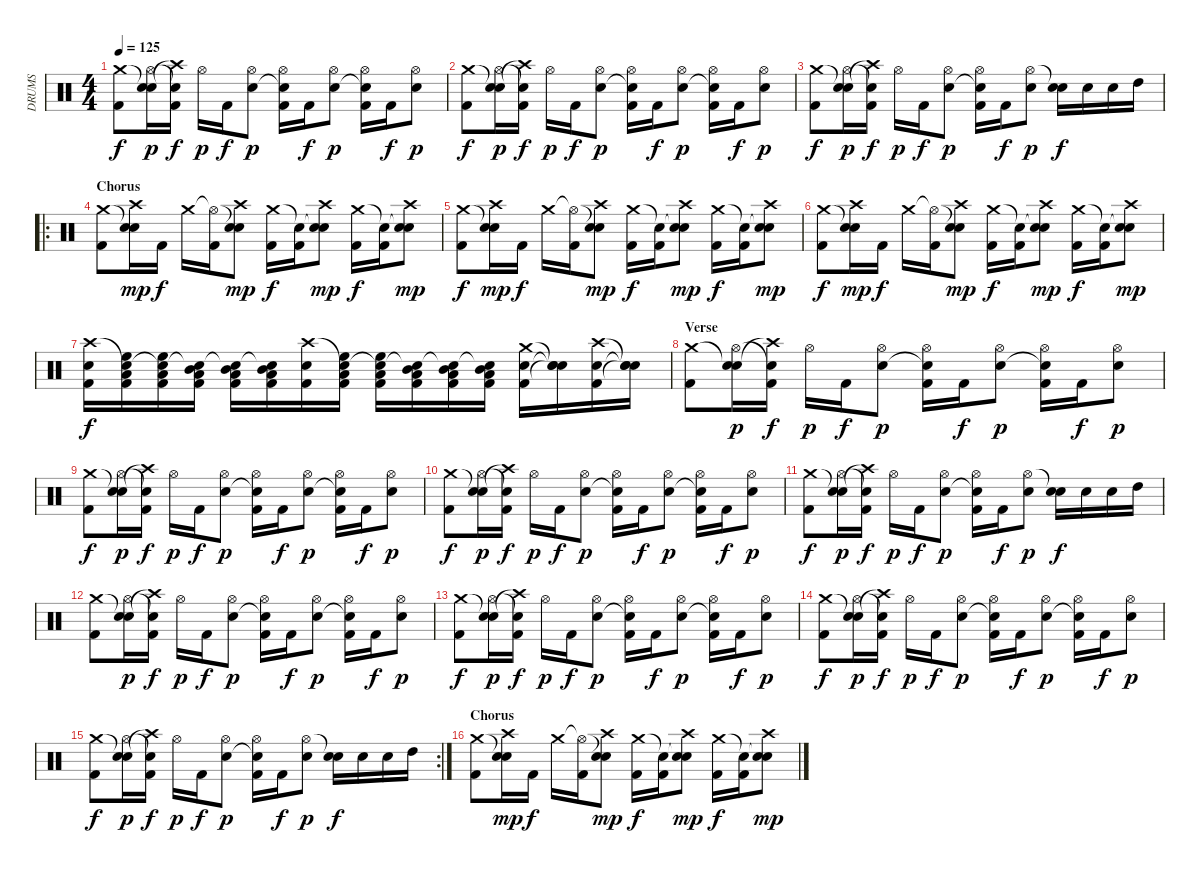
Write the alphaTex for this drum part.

\track ("DRUMS" "DRUMS") {instrument percussion}
\staff {score}
\articulation defaults
\ts (4 4)
\tempo 125
\clef neutral
\ks c
("Crash medium (hit)" "Kick (hit) 2").8{dy f} ("Snare (hit)"{t} "Hi-Hat (open)" "Electric Snare (hit)").16{dy p} ("Crash high (hit)"{t} "Snare (hit)"{t} "Kick (hit) 2").16{dy f} "Hi-Hat (open)".16{dy p} "Kick (hit) 2".16{dy f} ("Hi-Hat (open)" "Electric Snare (hit)").8{dy p} ("Hi-Hat (open)" "Snare (hit)"{t} "Kick (hit) 2").16 "Kick (hit) 2".16{dy f} ("Hi-Hat (open)" "Electric Snare (hit)").8{dy p} ("Hi-Hat (open)" "Snare (hit)"{t} "Kick (hit) 2").16 "Kick (hit) 2".16{dy f} ("Hi-Hat (open)" "Electric Snare (hit)").8{dy p} |
("Crash medium (hit)" "Kick (hit) 2").8{dy f} ("Snare (hit)"{t} "Hi-Hat (open)" "Electric Snare (hit)").16{dy p} ("Crash high (hit)"{t} "Snare (hit)"{t} "Kick (hit) 2").16{dy f} "Hi-Hat (open)".16{dy p} "Kick (hit) 2".16{dy f} ("Hi-Hat (open)" "Electric Snare (hit)").8{dy p} ("Hi-Hat (open)" "Snare (hit)"{t} "Kick (hit) 2").16 "Kick (hit) 2".16{dy f} ("Hi-Hat (open)" "Electric Snare (hit)").8{dy p} ("Hi-Hat (open)" "Snare (hit)"{t} "Kick (hit) 2").16 "Kick (hit) 2".16{dy f} ("Hi-Hat (open)" "Electric Snare (hit)").8{dy p} |
("Crash medium (hit)" "Kick (hit) 2").8{dy f} ("Snare (hit)"{t} "Hi-Hat (open)" "Electric Snare (hit)").16{dy p} ("Crash high (hit)"{t} "Snare (hit)"{t} "Kick (hit) 2").16{dy f} "Hi-Hat (open)".16{dy p} "Kick (hit) 2".16{dy f} ("Hi-Hat (open)" "Electric Snare (hit)").8{dy p} ("Hi-Hat (open)" "Snare (hit)"{t} "Kick (hit) 2").16 "Kick (hit) 2".16{dy f} ("Hi-Hat (open)" "Electric Snare (hit)").8{dy p} ("Snare (hit)"{t} "Electric Snare (hit)").16{dy f} "Electric Snare (hit)".16 "Electric Snare (hit)".16 "High Tom (hit)".16 |
\ro
\section ("" "Chorus")
("Crash medium (hit)" "Kick (hit) 2").8 ("Snare (hit)"{t} "Crash high (hit)" "Electric Snare (hit)").16{dy mp} "Kick (hit) 2".16{dy f} "Crash medium (hit)".16 ("Hi-Hat (open)"{t} "Kick (hit) 2").16 ("Snare (hit)"{t} "Crash high (hit)" "Electric Snare (hit)").8{dy mp} ("Crash medium (hit)" "Kick (hit) 2").16{dy f} ("Snare (hit)"{t} "Kick (hit) 2").16 ("Snare (hit)"{t} "Crash high (hit)" "Electric Snare (hit)").8{dy mp} ("Crash medium (hit)" "Kick (hit) 2").16{dy f} ("Snare (hit)"{t} "Kick (hit) 2").16 ("Snare (hit)"{t} "Crash high (hit)" "Electric Snare (hit)").8{dy mp} |
("Crash medium (hit)" "Kick (hit) 2").8{dy f} ("Snare (hit)"{t} "Crash high (hit)" "Electric Snare (hit)").16{dy mp} "Kick (hit) 2".16{dy f} "Crash medium (hit)".16 ("Hi-Hat (open)"{t} "Kick (hit) 2").16 ("Snare (hit)"{t} "Crash high (hit)" "Electric Snare (hit)").8{dy mp} ("Crash medium (hit)" "Kick (hit) 2").16{dy f} ("Snare (hit)"{t} "Kick (hit) 2").16 ("Snare (hit)"{t} "Crash high (hit)" "Electric Snare (hit)").8{dy mp} ("Crash medium (hit)" "Kick (hit) 2").16{dy f} ("Snare (hit)"{t} "Kick (hit) 2").16 ("Snare (hit)"{t} "Crash high (hit)" "Electric Snare (hit)").8{dy mp} |
("Crash medium (hit)" "Kick (hit) 2").8{dy f} ("Snare (hit)"{t} "Crash high (hit)" "Electric Snare (hit)").16{dy mp} "Kick (hit) 2".16{dy f} "Crash medium (hit)".16 ("Hi-Hat (open)"{t} "Kick (hit) 2").16 ("Snare (hit)"{t} "Crash high (hit)" "Electric Snare (hit)").8{dy mp} ("Crash medium (hit)" "Kick (hit) 2").16{dy f} ("Snare (hit)"{t} "Kick (hit) 2").16 ("Snare (hit)"{t} "Crash high (hit)" "Electric Snare (hit)").8{dy mp} ("Crash medium (hit)" "Kick (hit) 2").16{dy f} ("Snare (hit)"{t} "Kick (hit) 2").16 ("Snare (hit)"{t} "Crash high (hit)" "Electric Snare (hit)").8{dy mp} |
("Crash high (hit)" "Electric Snare (hit)" "Kick (hit) 2").16{dy f} ("Snare (hit)"{t} "Low Tom (hit)" "High Floor Tom (hit)" "Kick (hit) 2").16 ("Snare (hit)"{t} "Low Tom (hit)" "High Floor Tom (hit)" "Kick (hit) 2").16 ("Snare (hit)"{t} "Low Floor Tom (hit)" "Mid Tom (hit)" "Kick (hit) 2").16 ("Snare (hit)"{t} "Low Floor Tom (hit)" "Mid Tom (hit)" "Kick (hit) 2").16 ("Snare (hit)"{t} "Low Floor Tom (hit)" "Mid Tom (hit)" "Kick (hit) 2").16 ("Crash high (hit)" "Electric Snare (hit)" "Kick (hit) 2").16 ("Snare (hit)"{t} "Low Tom (hit)" "High Floor Tom (hit)" "Kick (hit) 2").16 ("Snare (hit)"{t} "Low Tom (hit)" "High Floor Tom (hit)" "Kick (hit) 2").16 ("Snare (hit)"{t} "Low Floor Tom (hit)" "Mid Tom (hit)" "Kick (hit) 2").16 ("Snare (hit)"{t} "Low Floor Tom (hit)" "Mid Tom (hit)" "Kick (hit) 2").16 ("Snare (hit)"{t} "Low Floor Tom (hit)" "Mid Tom (hit)" "Kick (hit) 2").16 ("Crash medium (hit)" "Electric Snare (hit)" "Kick (hit) 2").16 ("Snare (hit)"{t} "Snare (hit)"{t} "Snare (hit)"{t}).16 ("Crash high (hit)" "Electric Snare (hit)" "Kick (hit) 2").16 ("Snare (hit)"{t} "Snare (hit)"{t} "Snare (hit)"{t}).16 |
\section ("" "Verse")
("Crash medium (hit)" "Kick (hit) 2").8 ("Snare (hit)"{t} "Hi-Hat (open)" "Electric Snare (hit)").16{dy p} ("Crash high (hit)"{t} "Snare (hit)"{t} "Kick (hit) 2").16{dy f} "Hi-Hat (open)".16{dy p} "Kick (hit) 2".16{dy f} ("Hi-Hat (open)" "Electric Snare (hit)").8{dy p} ("Hi-Hat (open)" "Snare (hit)"{t} "Kick (hit) 2").16 "Kick (hit) 2".16{dy f} ("Hi-Hat (open)" "Electric Snare (hit)").8{dy p} ("Hi-Hat (open)" "Snare (hit)"{t} "Kick (hit) 2").16 "Kick (hit) 2".16{dy f} ("Hi-Hat (open)" "Electric Snare (hit)").8{dy p} |
("Crash medium (hit)" "Kick (hit) 2").8{dy f} ("Snare (hit)"{t} "Hi-Hat (open)" "Electric Snare (hit)").16{dy p} ("Crash high (hit)"{t} "Snare (hit)"{t} "Kick (hit) 2").16{dy f} "Hi-Hat (open)".16{dy p} "Kick (hit) 2".16{dy f} ("Hi-Hat (open)" "Electric Snare (hit)").8{dy p} ("Hi-Hat (open)" "Snare (hit)"{t} "Kick (hit) 2").16 "Kick (hit) 2".16{dy f} ("Hi-Hat (open)" "Electric Snare (hit)").8{dy p} ("Hi-Hat (open)" "Snare (hit)"{t} "Kick (hit) 2").16 "Kick (hit) 2".16{dy f} ("Hi-Hat (open)" "Electric Snare (hit)").8{dy p} |
("Crash medium (hit)" "Kick (hit) 2").8{dy f} ("Snare (hit)"{t} "Hi-Hat (open)" "Electric Snare (hit)").16{dy p} ("Crash high (hit)"{t} "Snare (hit)"{t} "Kick (hit) 2").16{dy f} "Hi-Hat (open)".16{dy p} "Kick (hit) 2".16{dy f} ("Hi-Hat (open)" "Electric Snare (hit)").8{dy p} ("Hi-Hat (open)" "Snare (hit)"{t} "Kick (hit) 2").16 "Kick (hit) 2".16{dy f} ("Hi-Hat (open)" "Electric Snare (hit)").8{dy p} ("Hi-Hat (open)" "Snare (hit)"{t} "Kick (hit) 2").16 "Kick (hit) 2".16{dy f} ("Hi-Hat (open)" "Electric Snare (hit)").8{dy p} |
("Crash medium (hit)" "Kick (hit) 2").8{dy f} ("Snare (hit)"{t} "Hi-Hat (open)" "Electric Snare (hit)").16{dy p} ("Crash high (hit)"{t} "Snare (hit)"{t} "Kick (hit) 2").16{dy f} "Hi-Hat (open)".16{dy p} "Kick (hit) 2".16{dy f} ("Hi-Hat (open)" "Electric Snare (hit)").8{dy p} ("Hi-Hat (open)" "Snare (hit)"{t} "Kick (hit) 2").16 "Kick (hit) 2".16{dy f} ("Hi-Hat (open)" "Electric Snare (hit)").8{dy p} ("Snare (hit)"{t} "Electric Snare (hit)").16{dy f} "Electric Snare (hit)".16 "Electric Snare (hit)".16 "High Tom (hit)".16 |
("Crash medium (hit)" "Kick (hit) 2").8 ("Snare (hit)"{t} "Hi-Hat (open)" "Electric Snare (hit)").16{dy p} ("Crash high (hit)"{t} "Snare (hit)"{t} "Kick (hit) 2").16{dy f} "Hi-Hat (open)".16{dy p} "Kick (hit) 2".16{dy f} ("Hi-Hat (open)" "Electric Snare (hit)").8{dy p} ("Hi-Hat (open)" "Snare (hit)"{t} "Kick (hit) 2").16 "Kick (hit) 2".16{dy f} ("Hi-Hat (open)" "Electric Snare (hit)").8{dy p} ("Hi-Hat (open)" "Snare (hit)"{t} "Kick (hit) 2").16 "Kick (hit) 2".16{dy f} ("Hi-Hat (open)" "Electric Snare (hit)").8{dy p} |
("Crash medium (hit)" "Kick (hit) 2").8{dy f} ("Snare (hit)"{t} "Hi-Hat (open)" "Electric Snare (hit)").16{dy p} ("Crash high (hit)"{t} "Snare (hit)"{t} "Kick (hit) 2").16{dy f} "Hi-Hat (open)".16{dy p} "Kick (hit) 2".16{dy f} ("Hi-Hat (open)" "Electric Snare (hit)").8{dy p} ("Hi-Hat (open)" "Snare (hit)"{t} "Kick (hit) 2").16 "Kick (hit) 2".16{dy f} ("Hi-Hat (open)" "Electric Snare (hit)").8{dy p} ("Hi-Hat (open)" "Snare (hit)"{t} "Kick (hit) 2").16 "Kick (hit) 2".16{dy f} ("Hi-Hat (open)" "Electric Snare (hit)").8{dy p} |
("Crash medium (hit)" "Kick (hit) 2").8{dy f} ("Snare (hit)"{t} "Hi-Hat (open)" "Electric Snare (hit)").16{dy p} ("Crash high (hit)"{t} "Snare (hit)"{t} "Kick (hit) 2").16{dy f} "Hi-Hat (open)".16{dy p} "Kick (hit) 2".16{dy f} ("Hi-Hat (open)" "Electric Snare (hit)").8{dy p} ("Hi-Hat (open)" "Snare (hit)"{t} "Kick (hit) 2").16 "Kick (hit) 2".16{dy f} ("Hi-Hat (open)" "Electric Snare (hit)").8{dy p} ("Hi-Hat (open)" "Snare (hit)"{t} "Kick (hit) 2").16 "Kick (hit) 2".16{dy f} ("Hi-Hat (open)" "Electric Snare (hit)").8{dy p} |
\rc 2
("Crash medium (hit)" "Kick (hit) 2").8{dy f} ("Snare (hit)"{t} "Hi-Hat (open)" "Electric Snare (hit)").16{dy p} ("Crash high (hit)"{t} "Snare (hit)"{t} "Kick (hit) 2").16{dy f} "Hi-Hat (open)".16{dy p} "Kick (hit) 2".16{dy f} ("Hi-Hat (open)" "Electric Snare (hit)").8{dy p} ("Hi-Hat (open)" "Snare (hit)"{t} "Kick (hit) 2").16 "Kick (hit) 2".16{dy f} ("Hi-Hat (open)" "Electric Snare (hit)").8{dy p} ("Snare (hit)"{t} "Electric Snare (hit)").16{dy f} "Electric Snare (hit)".16 "Electric Snare (hit)".16 "High Tom (hit)".16 |
\section ("" "Chorus")
("Crash medium (hit)" "Kick (hit) 2").8 ("Snare (hit)"{t} "Crash high (hit)" "Electric Snare (hit)").16{dy mp} "Kick (hit) 2".16{dy f} "Crash medium (hit)".16 ("Hi-Hat (open)"{t} "Kick (hit) 2").16 ("Snare (hit)"{t} "Crash high (hit)" "Electric Snare (hit)").8{dy mp} ("Crash medium (hit)" "Kick (hit) 2").16{dy f} ("Snare (hit)"{t} "Kick (hit) 2").16 ("Snare (hit)"{t} "Crash high (hit)" "Electric Snare (hit)").8{dy mp} ("Crash medium (hit)" "Kick (hit) 2").16{dy f} ("Snare (hit)"{t} "Kick (hit) 2").16 ("Snare (hit)"{t} "Crash high (hit)" "Electric Snare (hit)").8{dy mp}
